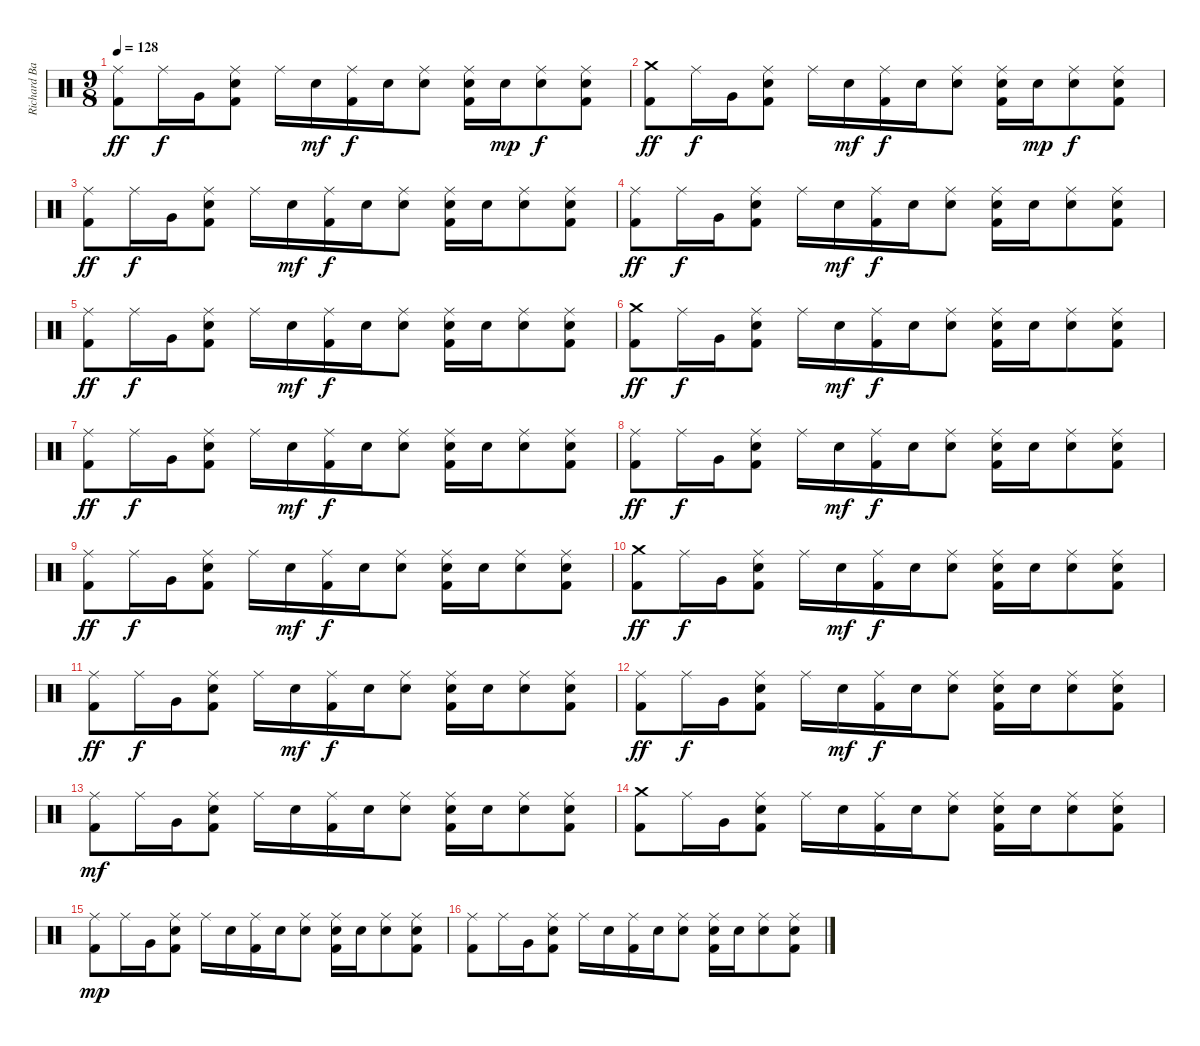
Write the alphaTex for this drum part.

\track ("Richard Bailey" "Richard Ba") {instrument percussion}
\staff {score}
\articulation defaults
\ts (9 8)
\tempo 128
\clef neutral
\ks c
("Ride (middle)" "Kick (hit) 2").8{dy ff} "Ride (middle)".16{dy f} "Very Low Tom (hit)".16 ("Ride (middle)" "Snare (hit) 2" "Kick (hit) 2").8 "Ride (middle)".16 "Snare (hit) 2".16{dy mf} ("Ride (middle)" "Kick (hit) 2").16{dy f} "Snare (hit) 2".16 ("Ride (middle)" "Snare (hit) 2").8 ("Ride (middle)" "Snare (hit) 2" "Kick (hit) 2").16 "Snare (hit) 2".16{dy mp} ("Ride (middle)" "Snare (hit) 2").8{dy f} ("Ride (middle)" "Snare (hit) 2" "Kick (hit) 2").8 |
("Crash medium (hit)" "Kick (hit) 2").8{dy ff} "Ride (middle)".16{dy f} "Very Low Tom (hit)".16 ("Ride (middle)" "Snare (hit) 2" "Kick (hit) 2").8 "Ride (middle)".16 "Snare (hit) 2".16{dy mf} ("Ride (middle)" "Kick (hit) 2").16{dy f} "Snare (hit) 2".16 ("Ride (middle)" "Snare (hit) 2").8 ("Ride (middle)" "Snare (hit) 2" "Kick (hit) 2").16 "Snare (hit) 2".16{dy mp} ("Ride (middle)" "Snare (hit) 2").8{dy f} ("Ride (middle)" "Snare (hit) 2" "Kick (hit) 2").8 |
("Ride (middle)" "Kick (hit) 2").8{dy ff} "Ride (middle)".16{dy f} "Very Low Tom (hit)".16 ("Ride (middle)" "Snare (hit) 2" "Kick (hit) 2").8 "Ride (middle)".16 "Snare (hit) 2".16{dy mf} ("Ride (middle)" "Kick (hit) 2").16{dy f} "Snare (hit) 2".16 ("Ride (middle)" "Snare (hit) 2").8 ("Ride (middle)" "Snare (hit) 2" "Kick (hit) 2").16 "Snare (hit) 2".16 ("Ride (middle)" "Snare (hit) 2").8 ("Ride (middle)" "Snare (hit) 2" "Kick (hit) 2").8 |
("Ride (middle)" "Kick (hit) 2").8{dy ff} "Ride (middle)".16{dy f} "Very Low Tom (hit)".16 ("Ride (middle)" "Snare (hit) 2" "Kick (hit) 2").8 "Ride (middle)".16 "Snare (hit) 2".16{dy mf} ("Ride (middle)" "Kick (hit) 2").16{dy f} "Snare (hit) 2".16 ("Ride (middle)" "Snare (hit) 2").8 ("Ride (middle)" "Snare (hit) 2" "Kick (hit) 2").16 "Snare (hit) 2".16 ("Ride (middle)" "Snare (hit) 2").8 ("Ride (middle)" "Snare (hit) 2" "Kick (hit) 2").8 |
("Ride (middle)" "Kick (hit) 2").8{dy ff} "Ride (middle)".16{dy f} "Very Low Tom (hit)".16 ("Ride (middle)" "Snare (hit) 2" "Kick (hit) 2").8 "Ride (middle)".16 "Snare (hit) 2".16{dy mf} ("Ride (middle)" "Kick (hit) 2").16{dy f} "Snare (hit) 2".16 ("Ride (middle)" "Snare (hit) 2").8 ("Ride (middle)" "Snare (hit) 2" "Kick (hit) 2").16 "Snare (hit) 2".16 ("Ride (middle)" "Snare (hit) 2").8 ("Ride (middle)" "Snare (hit) 2" "Kick (hit) 2").8 |
("Crash medium (hit)" "Kick (hit) 2").8{dy ff} "Ride (middle)".16{dy f} "Very Low Tom (hit)".16 ("Ride (middle)" "Snare (hit) 2" "Kick (hit) 2").8 "Ride (middle)".16 "Snare (hit) 2".16{dy mf} ("Ride (middle)" "Kick (hit) 2").16{dy f} "Snare (hit) 2".16 ("Ride (middle)" "Snare (hit) 2").8 ("Ride (middle)" "Snare (hit) 2" "Kick (hit) 2").16 "Snare (hit) 2".16 ("Ride (middle)" "Snare (hit) 2").8 ("Ride (middle)" "Snare (hit) 2" "Kick (hit) 2").8 |
("Ride (middle)" "Kick (hit) 2").8{dy ff} "Ride (middle)".16{dy f} "Very Low Tom (hit)".16 ("Ride (middle)" "Snare (hit) 2" "Kick (hit) 2").8 "Ride (middle)".16 "Snare (hit) 2".16{dy mf} ("Ride (middle)" "Kick (hit) 2").16{dy f} "Snare (hit) 2".16 ("Ride (middle)" "Snare (hit) 2").8 ("Ride (middle)" "Snare (hit) 2" "Kick (hit) 2").16 "Snare (hit) 2".16 ("Ride (middle)" "Snare (hit) 2").8 ("Ride (middle)" "Snare (hit) 2" "Kick (hit) 2").8 |
("Ride (middle)" "Kick (hit) 2").8{dy ff} "Ride (middle)".16{dy f} "Very Low Tom (hit)".16 ("Ride (middle)" "Snare (hit) 2" "Kick (hit) 2").8 "Ride (middle)".16 "Snare (hit) 2".16{dy mf} ("Ride (middle)" "Kick (hit) 2").16{dy f} "Snare (hit) 2".16 ("Ride (middle)" "Snare (hit) 2").8 ("Ride (middle)" "Snare (hit) 2" "Kick (hit) 2").16 "Snare (hit) 2".16 ("Ride (middle)" "Snare (hit) 2").8 ("Ride (middle)" "Snare (hit) 2" "Kick (hit) 2").8 |
("Ride (middle)" "Kick (hit) 2").8{dy ff} "Ride (middle)".16{dy f} "Very Low Tom (hit)".16 ("Ride (middle)" "Snare (hit) 2" "Kick (hit) 2").8 "Ride (middle)".16 "Snare (hit) 2".16{dy mf} ("Ride (middle)" "Kick (hit) 2").16{dy f} "Snare (hit) 2".16 ("Ride (middle)" "Snare (hit) 2").8 ("Ride (middle)" "Snare (hit) 2" "Kick (hit) 2").16 "Snare (hit) 2".16 ("Ride (middle)" "Snare (hit) 2").8 ("Ride (middle)" "Snare (hit) 2" "Kick (hit) 2").8 |
("Crash medium (hit)" "Kick (hit) 2").8{dy ff} "Ride (middle)".16{dy f} "Very Low Tom (hit)".16 ("Ride (middle)" "Snare (hit) 2" "Kick (hit) 2").8 "Ride (middle)".16 "Snare (hit) 2".16{dy mf} ("Ride (middle)" "Kick (hit) 2").16{dy f} "Snare (hit) 2".16 ("Ride (middle)" "Snare (hit) 2").8 ("Ride (middle)" "Snare (hit) 2" "Kick (hit) 2").16 "Snare (hit) 2".16 ("Ride (middle)" "Snare (hit) 2").8 ("Ride (middle)" "Snare (hit) 2" "Kick (hit) 2").8 |
("Ride (middle)" "Kick (hit) 2").8{dy ff} "Ride (middle)".16{dy f} "Very Low Tom (hit)".16 ("Ride (middle)" "Snare (hit) 2" "Kick (hit) 2").8 "Ride (middle)".16 "Snare (hit) 2".16{dy mf} ("Ride (middle)" "Kick (hit) 2").16{dy f} "Snare (hit) 2".16 ("Ride (middle)" "Snare (hit) 2").8 ("Ride (middle)" "Snare (hit) 2" "Kick (hit) 2").16 "Snare (hit) 2".16 ("Ride (middle)" "Snare (hit) 2").8 ("Ride (middle)" "Snare (hit) 2" "Kick (hit) 2").8 |
("Ride (middle)" "Kick (hit) 2").8{dy ff} "Ride (middle)".16{dy f} "Very Low Tom (hit)".16 ("Ride (middle)" "Snare (hit) 2" "Kick (hit) 2").8 "Ride (middle)".16 "Snare (hit) 2".16{dy mf} ("Ride (middle)" "Kick (hit) 2").16{dy f} "Snare (hit) 2".16 ("Ride (middle)" "Snare (hit) 2").8 ("Ride (middle)" "Snare (hit) 2" "Kick (hit) 2").16 "Snare (hit) 2".16 ("Ride (middle)" "Snare (hit) 2").8 ("Ride (middle)" "Snare (hit) 2" "Kick (hit) 2").8 |
("Ride (middle)" "Kick (hit) 2").8{dy mf} "Ride (middle)".16 "Very Low Tom (hit)".16 ("Ride (middle)" "Snare (hit) 2" "Kick (hit) 2").8 "Ride (middle)".16 "Snare (hit) 2".16 ("Ride (middle)" "Kick (hit) 2").16 "Snare (hit) 2".16 ("Ride (middle)" "Snare (hit) 2").8 ("Ride (middle)" "Snare (hit) 2" "Kick (hit) 2").16 "Snare (hit) 2".16 ("Ride (middle)" "Snare (hit) 2").8 ("Ride (middle)" "Snare (hit) 2" "Kick (hit) 2").8 |
("Crash medium (hit)" "Kick (hit) 2").8 "Ride (middle)".16 "Very Low Tom (hit)".16 ("Ride (middle)" "Snare (hit) 2" "Kick (hit) 2").8 "Ride (middle)".16 "Snare (hit) 2".16 ("Ride (middle)" "Kick (hit) 2").16 "Snare (hit) 2".16 ("Ride (middle)" "Snare (hit) 2").8 ("Ride (middle)" "Snare (hit) 2" "Kick (hit) 2").16 "Snare (hit) 2".16 ("Ride (middle)" "Snare (hit) 2").8 ("Ride (middle)" "Snare (hit) 2" "Kick (hit) 2").8 |
("Ride (middle)" "Kick (hit) 2").8{dy mp volume 0} "Ride (middle)".16 "Very Low Tom (hit)".16 ("Ride (middle)" "Snare (hit) 2" "Kick (hit) 2").8 "Ride (middle)".16 "Snare (hit) 2".16 ("Ride (middle)" "Kick (hit) 2").16 "Snare (hit) 2".16 ("Ride (middle)" "Snare (hit) 2").8 ("Ride (middle)" "Snare (hit) 2" "Kick (hit) 2").16 "Snare (hit) 2".16 ("Ride (middle)" "Snare (hit) 2").8 ("Ride (middle)" "Snare (hit) 2" "Kick (hit) 2").8 |
("Ride (middle)" "Kick (hit) 2").8 "Ride (middle)".16 "Very Low Tom (hit)".16 ("Ride (middle)" "Snare (hit) 2" "Kick (hit) 2").8 "Ride (middle)".16 "Snare (hit) 2".16 ("Ride (middle)" "Kick (hit) 2").16 "Snare (hit) 2".16 ("Ride (middle)" "Snare (hit) 2").8 ("Ride (middle)" "Snare (hit) 2" "Kick (hit) 2").16 "Snare (hit) 2".16 ("Ride (middle)" "Snare (hit) 2").8 ("Ride (middle)" "Snare (hit) 2" "Kick (hit) 2").8
